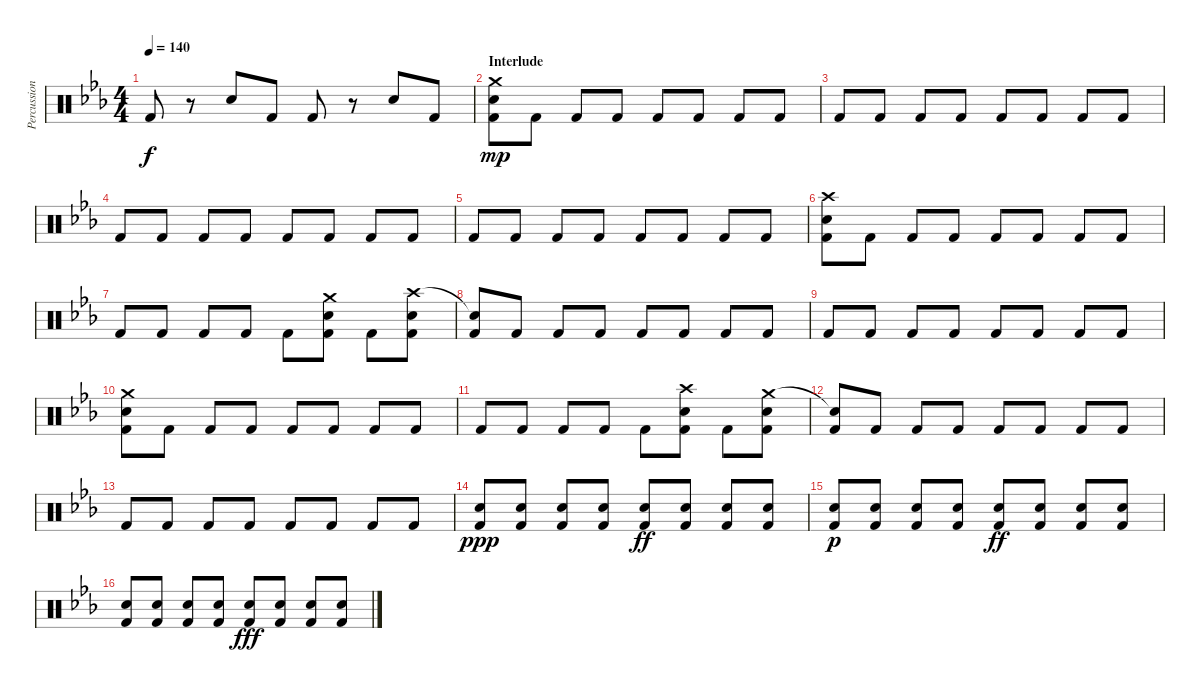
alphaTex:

\track ("Percussions" "Percussion") {instrument percussion}
\staff {score}
\articulation defaults
\ts (4 4)
\tempo 140
\clef neutral
\ks eb "Kick (hit) 2".8{dy f}
r.8 "Snare (hit) 2".8 "Kick (hit) 2".8 "Kick (hit) 2".8 r.8 "Snare (hit) 2".8 "Kick (hit) 2".8 |
\section ("" "Interlude")
("Crash medium (hit)" "Snare (hit) 2" "Kick (hit) 2").8{dy mp} "Kick (hit) 2".8 "Kick (hit) 2".8 "Kick (hit) 2".8 "Kick (hit) 2".8 "Kick (hit) 2".8 "Kick (hit) 2".8 "Kick (hit) 2".8 |
"Kick (hit) 2".8 "Kick (hit) 2".8 "Kick (hit) 2".8 "Kick (hit) 2".8 "Kick (hit) 2".8 "Kick (hit) 2".8 "Kick (hit) 2".8 "Kick (hit) 2".8 |
"Kick (hit) 2".8 "Kick (hit) 2".8 "Kick (hit) 2".8 "Kick (hit) 2".8 "Kick (hit) 2".8 "Kick (hit) 2".8 "Kick (hit) 2".8 "Kick (hit) 2".8 |
"Kick (hit) 2".8 "Kick (hit) 2".8 "Kick (hit) 2".8 "Kick (hit) 2".8 "Kick (hit) 2".8 "Kick (hit) 2".8 "Kick (hit) 2".8 "Kick (hit) 2".8 |
("Crash high (hit)" "Snare (hit) 2" "Kick (hit) 2").8 "Kick (hit) 2".8 "Kick (hit) 2".8 "Kick (hit) 2".8 "Kick (hit) 2".8 "Kick (hit) 2".8 "Kick (hit) 2".8 "Kick (hit) 2".8 |
"Kick (hit) 2".8 "Kick (hit) 2".8 "Kick (hit) 2".8 "Kick (hit) 2".8 "Kick (hit) 2".8 ("Crash medium (hit)" "Snare (hit) 2" "Kick (hit) 2").8 "Kick (hit) 2".8 ("Crash high (hit)" "Snare (hit) 2" "Kick (hit) 2").8 |
("Snare (hit)"{t} "Kick (hit) 2").8 "Kick (hit) 2".8 "Kick (hit) 2".8 "Kick (hit) 2".8 "Kick (hit) 2".8 "Kick (hit) 2".8 "Kick (hit) 2".8 "Kick (hit) 2".8 |
"Kick (hit) 2".8 "Kick (hit) 2".8 "Kick (hit) 2".8 "Kick (hit) 2".8 "Kick (hit) 2".8 "Kick (hit) 2".8 "Kick (hit) 2".8 "Kick (hit) 2".8 |
("Crash medium (hit)" "Snare (hit) 2" "Kick (hit) 2").8 "Kick (hit) 2".8 "Kick (hit) 2".8 "Kick (hit) 2".8 "Kick (hit) 2".8 "Kick (hit) 2".8 "Kick (hit) 2".8 "Kick (hit) 2".8 |
"Kick (hit) 2".8 "Kick (hit) 2".8 "Kick (hit) 2".8 "Kick (hit) 2".8 "Kick (hit) 2".8 ("Crash high (hit)" "Snare (hit) 2" "Kick (hit) 2").8 "Kick (hit) 2".8 ("Crash medium (hit)" "Snare (hit) 2" "Kick (hit) 2").8 |
("Snare (hit)"{t} "Kick (hit) 2").8 "Kick (hit) 2".8 "Kick (hit) 2".8 "Kick (hit) 2".8 "Kick (hit) 2".8 "Kick (hit) 2".8 "Kick (hit) 2".8 "Kick (hit) 2".8 |
"Kick (hit) 2".8 "Kick (hit) 2".8 "Kick (hit) 2".8 "Kick (hit) 2".8 "Kick (hit) 2".8 "Kick (hit) 2".8 "Kick (hit) 2".8 "Kick (hit) 2".8 |
("Snare (hit) 2" "Kick (hit) 2").8{dy ppp} ("Snare (hit) 2" "Kick (hit) 2").8 ("Snare (hit) 2" "Kick (hit) 2").8 ("Snare (hit) 2" "Kick (hit) 2").8 ("Snare (hit) 2" "Kick (hit) 2").8{dy ff} ("Snare (hit) 2" "Kick (hit) 2").8 ("Snare (hit) 2" "Kick (hit) 2").8 ("Snare (hit) 2" "Kick (hit) 2").8 |
("Snare (hit) 2" "Kick (hit) 2").8{dy p} ("Snare (hit) 2" "Kick (hit) 2").8 ("Snare (hit) 2" "Kick (hit) 2").8 ("Snare (hit) 2" "Kick (hit) 2").8 ("Snare (hit) 2" "Kick (hit) 2").8{dy ff} ("Snare (hit) 2" "Kick (hit) 2").8 ("Snare (hit) 2" "Kick (hit) 2").8 ("Snare (hit) 2" "Kick (hit) 2").8 |
("Snare (hit) 2" "Kick (hit) 2").8 ("Snare (hit) 2" "Kick (hit) 2").8 ("Snare (hit) 2" "Kick (hit) 2").8 ("Snare (hit) 2" "Kick (hit) 2").8 ("Snare (hit) 2" "Kick (hit) 2").8{dy fff} ("Snare (hit) 2" "Kick (hit) 2").8 ("Snare (hit) 2" "Kick (hit) 2").8 ("Snare (hit) 2" "Kick (hit) 2").8
